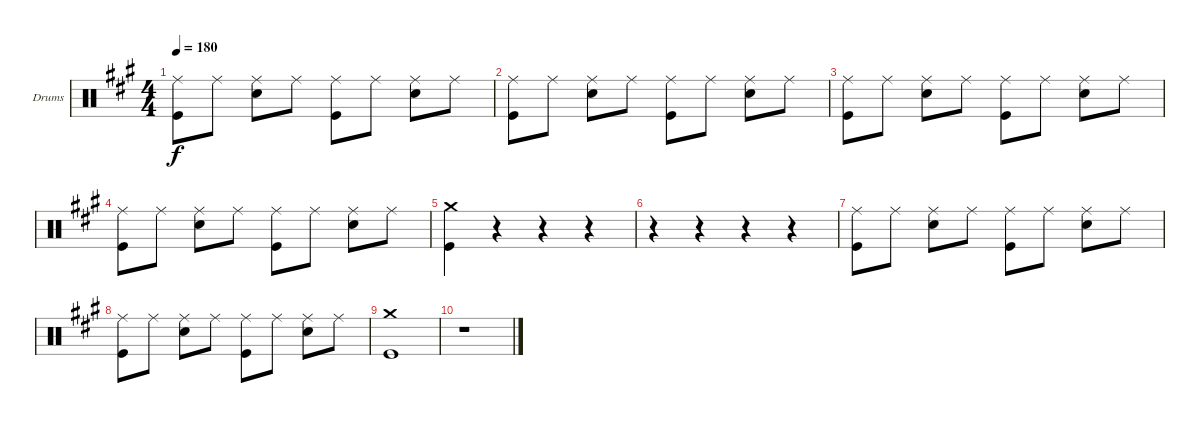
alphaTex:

\bracketExtendMode groupsimilarinstruments
\firstSystemTrackNameOrientation horizontal
\otherSystemsTrackNameOrientation horizontal
\track ("Drumkit" "Drums") {instrument percussion}
\staff {score}
\articulation defaults
\ts (4 4)
\tempo 180
\clef neutral
\ks a
("Ride (middle)" "Kick (hit)").8{dy f} "Ride (middle)".8 ("Ride (middle)" "Snare (hit) 2").8 "Ride (middle)".8 ("Ride (middle)" "Kick (hit)").8 "Ride (middle)".8 ("Ride (middle)" "Snare (hit) 2").8 "Ride (middle)".8 |
("Ride (middle)" "Kick (hit)").8 "Ride (middle)".8 ("Ride (middle)" "Snare (hit) 2").8 "Ride (middle)".8 ("Ride (middle)" "Kick (hit)").8 "Ride (middle)".8 ("Ride (middle)" "Snare (hit) 2").8 "Ride (middle)".8 |
("Ride (middle)" "Kick (hit)").8 "Ride (middle)".8 ("Ride (middle)" "Snare (hit) 2").8 "Ride (middle)".8 ("Ride (middle)" "Kick (hit)").8 "Ride (middle)".8 ("Ride (middle)" "Snare (hit) 2").8 "Ride (middle)".8 |
("Ride (middle)" "Kick (hit)").8 "Ride (middle)".8 ("Ride (middle)" "Snare (hit) 2").8 "Ride (middle)".8 ("Ride (middle)" "Kick (hit)").8 "Ride (middle)".8 ("Ride (middle)" "Snare (hit) 2").8 "Ride (middle)".8 |
("Crash medium (hit)" "Kick (hit)").4 r.4 r.4 r.4 |
r.4 r.4 r.4 r.4 |
("Ride (middle)" "Kick (hit)").8 "Ride (middle)".8 ("Ride (middle)" "Snare (hit) 2").8 "Ride (middle)".8 ("Ride (middle)" "Kick (hit)").8 "Ride (middle)".8 ("Ride (middle)" "Snare (hit) 2").8 "Ride (middle)".8 |
("Ride (middle)" "Kick (hit)").8 "Ride (middle)".8 ("Ride (middle)" "Snare (hit) 2").8 "Ride (middle)".8 ("Ride (middle)" "Kick (hit)").8 "Ride (middle)".8 ("Ride (middle)" "Snare (hit) 2").8 "Ride (middle)".8 |
("Crash medium (hit)" "Kick (hit)").1 |
r.1
